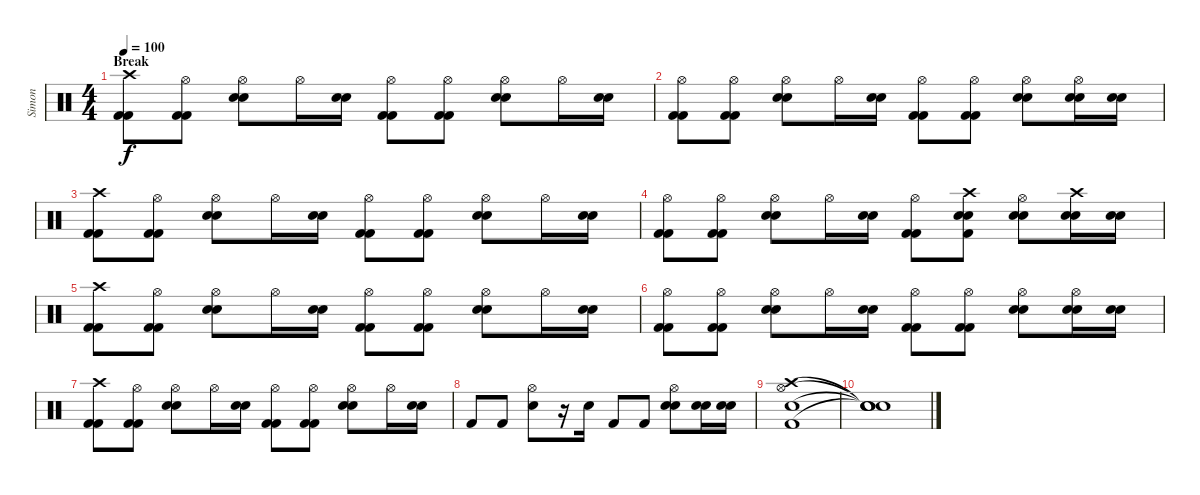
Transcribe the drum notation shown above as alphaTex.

\track ("Simon" "Simon") {instrument percussion}
\staff {score}
\articulation defaults
\ts (4 4)
\section ("" "Break")
\tempo 100
\clef neutral
\ks c
("Crash high (hit)" "Kick (hit) 2" "Kick (hit) 2").8{dy f} ("Hi-Hat (open)" "Kick (hit) 2" "Kick (hit) 2").8 ("Hi-Hat (open)" "Electric Snare (hit)" "Electric Snare (hit)").8 "Hi-Hat (open)".16 ("Electric Snare (hit)" "Electric Snare (hit)").16 ("Hi-Hat (open)" "Kick (hit) 2" "Kick (hit) 2").8 ("Hi-Hat (open)" "Kick (hit) 2" "Kick (hit) 2").8 ("Hi-Hat (open)" "Electric Snare (hit)" "Electric Snare (hit)").8 "Hi-Hat (open)".16 ("Electric Snare (hit)" "Electric Snare (hit)").16 |
("Hi-Hat (open)" "Kick (hit) 2" "Kick (hit) 2").8 ("Hi-Hat (open)" "Kick (hit) 2" "Kick (hit) 2").8 ("Hi-Hat (open)" "Electric Snare (hit)" "Electric Snare (hit)").8 "Hi-Hat (open)".16 ("Electric Snare (hit)" "Electric Snare (hit)").16 ("Hi-Hat (open)" "Kick (hit) 2" "Kick (hit) 2").8 ("Hi-Hat (open)" "Kick (hit) 2" "Kick (hit) 2").8 ("Hi-Hat (open)" "Electric Snare (hit)" "Electric Snare (hit)").8 ("Hi-Hat (open)" "Electric Snare (hit)" "Electric Snare (hit)").16 ("Electric Snare (hit)" "Electric Snare (hit)").16 |
("Crash high (hit)" "Kick (hit) 2" "Kick (hit) 2").8 ("Hi-Hat (open)" "Kick (hit) 2" "Kick (hit) 2").8 ("Hi-Hat (open)" "Electric Snare (hit)" "Electric Snare (hit)").8 "Hi-Hat (open)".16 ("Electric Snare (hit)" "Electric Snare (hit)").16 ("Hi-Hat (open)" "Kick (hit) 2" "Kick (hit) 2").8 ("Hi-Hat (open)" "Kick (hit) 2" "Kick (hit) 2").8 ("Hi-Hat (open)" "Electric Snare (hit)" "Electric Snare (hit)").8 "Hi-Hat (open)".16 ("Electric Snare (hit)" "Electric Snare (hit)").16 |
("Hi-Hat (open)" "Kick (hit) 2" "Kick (hit) 2").8 ("Hi-Hat (open)" "Kick (hit) 2" "Kick (hit) 2").8 ("Hi-Hat (open)" "Electric Snare (hit)" "Electric Snare (hit)").8 "Hi-Hat (open)".16 ("Electric Snare (hit)" "Electric Snare (hit)").16 ("Hi-Hat (open)" "Kick (hit) 2" "Kick (hit) 2").8 ("Crash high (hit)" "Kick (hit) 2" "Electric Snare (hit)" "Electric Snare (hit)").8 ("Hi-Hat (open)" "Electric Snare (hit)" "Electric Snare (hit)").8 ("Crash high (hit)" "Electric Snare (hit)" "Electric Snare (hit)").16 ("Electric Snare (hit)" "Electric Snare (hit)").16 |
("Crash high (hit)" "Kick (hit) 2" "Kick (hit) 2").8 ("Hi-Hat (open)" "Kick (hit) 2" "Kick (hit) 2").8 ("Hi-Hat (open)" "Electric Snare (hit)" "Electric Snare (hit)").8 "Hi-Hat (open)".16 ("Electric Snare (hit)" "Electric Snare (hit)").16 ("Hi-Hat (open)" "Kick (hit) 2" "Kick (hit) 2").8 ("Hi-Hat (open)" "Kick (hit) 2" "Kick (hit) 2").8 ("Hi-Hat (open)" "Electric Snare (hit)" "Electric Snare (hit)").8 "Hi-Hat (open)".16 ("Electric Snare (hit)" "Electric Snare (hit)").16 |
("Hi-Hat (open)" "Kick (hit) 2" "Kick (hit) 2").8 ("Hi-Hat (open)" "Kick (hit) 2" "Kick (hit) 2").8 ("Hi-Hat (open)" "Electric Snare (hit)" "Electric Snare (hit)").8 "Hi-Hat (open)".16 ("Electric Snare (hit)" "Electric Snare (hit)").16 ("Hi-Hat (open)" "Kick (hit) 2" "Kick (hit) 2").8 ("Hi-Hat (open)" "Kick (hit) 2" "Kick (hit) 2").8 ("Hi-Hat (open)" "Electric Snare (hit)" "Electric Snare (hit)").8 ("Hi-Hat (open)" "Electric Snare (hit)" "Electric Snare (hit)").16 ("Electric Snare (hit)" "Electric Snare (hit)").16 |
("Crash high (hit)" "Kick (hit) 2" "Kick (hit) 2").8 ("Hi-Hat (open)" "Kick (hit) 2" "Kick (hit) 2").8 ("Hi-Hat (open)" "Electric Snare (hit)" "Electric Snare (hit)").8 "Hi-Hat (open)".16 ("Electric Snare (hit)" "Electric Snare (hit)").16 ("Hi-Hat (open)" "Kick (hit) 2" "Kick (hit) 2").8 ("Hi-Hat (open)" "Kick (hit) 2" "Kick (hit) 2").8 ("Hi-Hat (open)" "Electric Snare (hit)" "Electric Snare (hit)").8 "Hi-Hat (open)".16 ("Electric Snare (hit)" "Electric Snare (hit)").16 |
"Kick (hit) 2".8 "Kick (hit) 2".8 ("Hi-Hat (open)" "Electric Snare (hit)").8 r.16 "Electric Snare (hit)".16 "Kick (hit) 2".8 "Kick (hit) 2".8 ("Hi-Hat (open)" "Electric Snare (hit)" "Electric Snare (hit)").8 ("Electric Snare (hit)" "Electric Snare (hit)").16 ("Electric Snare (hit)" "Electric Snare (hit)").16 |
("Crash high (hit)" "Electric Snare (hit)" "Kick (hit) 2" "Hi-Hat (open)").1 |
("Snare (hit)"{t} "Snare (hit)"{t} "Snare (hit)"{t} "Snare (hit)"{t}).1
